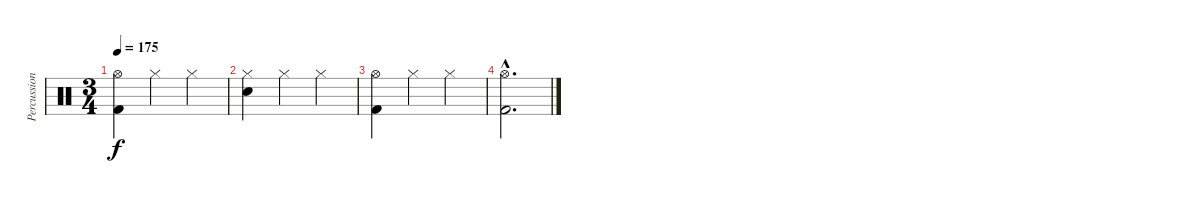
\track ("Percussion" "Percussion") {instrument percussion}
\staff {score}
\articulation defaults
\ts (3 4)
\tempo 175
\clef neutral
\ks c
("Hi-Hat (open)" "Kick (hit) 2").4{dy f} "Hi-Hat (closed)".4 "Hi-Hat (closed)".4 |
("Electric Snare (hit)" "Hi-Hat (closed)").4 "Hi-Hat (closed)".4 "Hi-Hat (closed)".4 |
("Hi-Hat (open)" "Kick (hit) 2").4 "Hi-Hat (closed)".4 "Hi-Hat (closed)".4 |
("Hi-Hat (open)"{hac} "Kick (hit) 2"{hac}).2{d}
